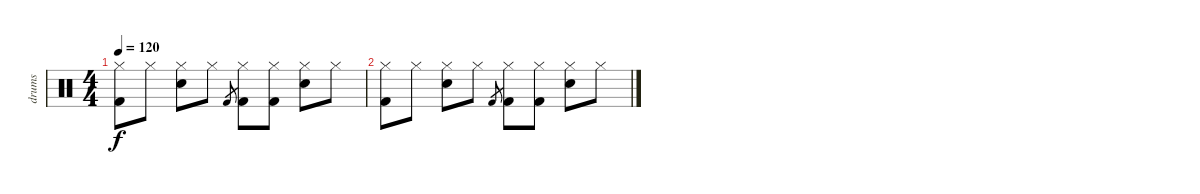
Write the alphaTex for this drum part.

\track ("drums" "drums") {instrument percussion}
\staff {score}
\articulation defaults
\ts (4 4)
\tempo 120
\clef neutral
\ks c
("Hi-Hat (closed)" "Kick (hit) 2").8{dy f} "Hi-Hat (closed)".8 ("Hi-Hat (closed)" "Electric Snare (hit)").8 "Hi-Hat (closed)".8 "Kick (hit) 2".8{gr} ("Hi-Hat (closed)" "Kick (hit) 2").8 ("Hi-Hat (closed)" "Kick (hit) 2").8 ("Hi-Hat (closed)" "Electric Snare (hit)").8 "Hi-Hat (closed)".8 |
("Hi-Hat (closed)" "Kick (hit) 2").8 "Hi-Hat (closed)".8 ("Hi-Hat (closed)" "Electric Snare (hit)").8 "Hi-Hat (closed)".8 "Kick (hit) 2".8{gr} ("Hi-Hat (closed)" "Kick (hit) 2").8 ("Hi-Hat (closed)" "Kick (hit) 2").8 ("Hi-Hat (closed)" "Electric Snare (hit)").8 "Hi-Hat (closed)".8
